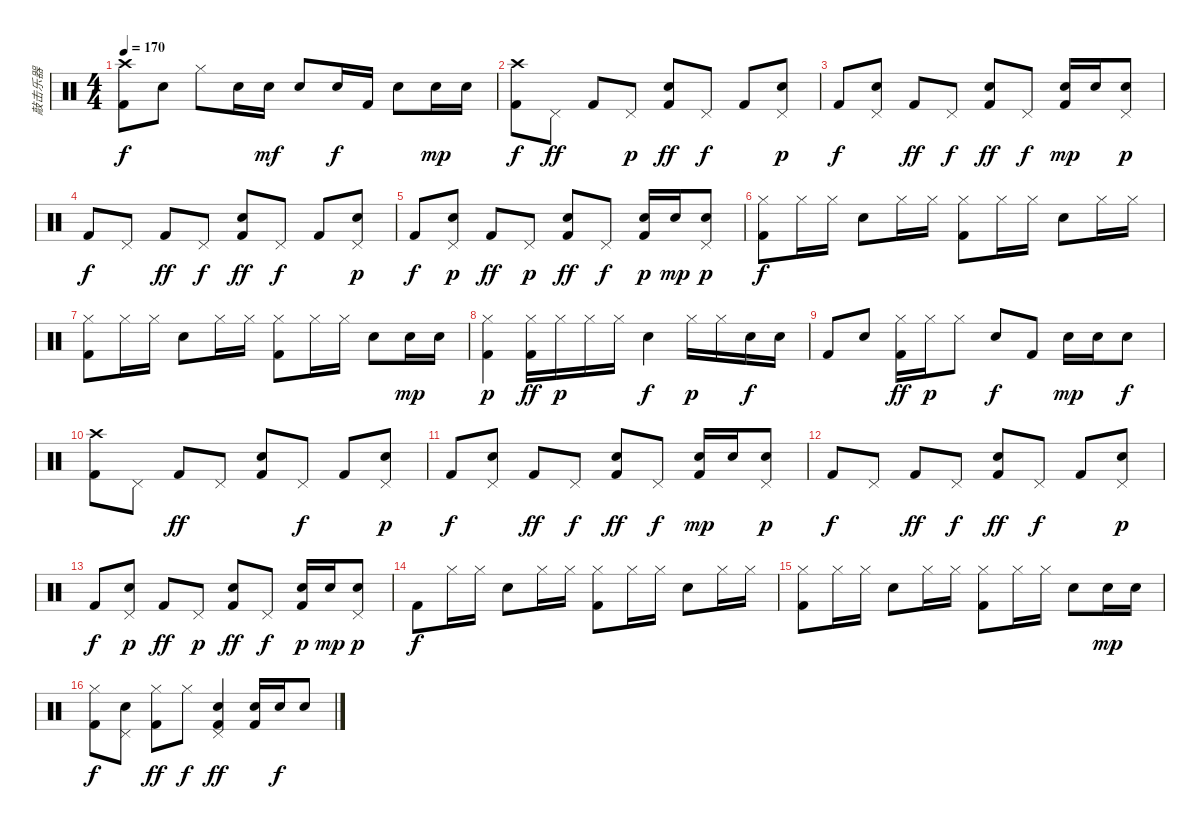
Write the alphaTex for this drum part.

\track ("敲击乐器" "敲击乐器") {instrument percussion}
\staff {score}
\articulation defaults
\ts (4 4)
\tempo 170
\clef neutral
\ks c
("Crash high (hit)" "Kick (hit) 2").8{dy f} "Snare (hit) 2".8 "Hi-Hat (closed)".8 "Snare (hit) 2".16 "Snare (hit) 2".16{dy mf} "Snare (hit) 2".8 "Snare (hit) 2".16{dy f} "Kick (hit) 2".16 "Snare (hit) 2".8 "Snare (hit) 2".16{dy mp} "Snare (hit) 2".16 |
("Crash high (hit)" "Kick (hit) 2").8{dy f} "Pedal Hi-Hat (hit)".8{dy ff} "Kick (hit) 2".8 "Pedal Hi-Hat (hit)".8{dy p} ("Snare (hit) 2" "Kick (hit) 2").8{dy ff} "Pedal Hi-Hat (hit)".8{dy f} "Kick (hit) 2".8 ("Pedal Hi-Hat (hit)" "Snare (hit) 2").8{dy p} |
"Kick (hit) 2".8{dy f} ("Pedal Hi-Hat (hit)" "Snare (hit) 2").8 "Kick (hit) 2".8{dy ff} "Pedal Hi-Hat (hit)".8{dy f} ("Snare (hit) 2" "Kick (hit) 2").8{dy ff} "Pedal Hi-Hat (hit)".8{dy f} ("Snare (hit) 2" "Kick (hit) 2").16{dy mp} "Snare (hit) 2".16 ("Pedal Hi-Hat (hit)" "Snare (hit) 2").8{dy p} |
"Kick (hit) 2".8{dy f} "Pedal Hi-Hat (hit)".8 "Kick (hit) 2".8{dy ff} "Pedal Hi-Hat (hit)".8{dy f} ("Snare (hit) 2" "Kick (hit) 2").8{dy ff} "Pedal Hi-Hat (hit)".8{dy f} "Kick (hit) 2".8 ("Pedal Hi-Hat (hit)" "Snare (hit) 2").8{dy p} |
"Kick (hit) 2".8{dy f} ("Pedal Hi-Hat (hit)" "Snare (hit) 2").8{dy p} "Kick (hit) 2".8{dy ff} "Pedal Hi-Hat (hit)".8{dy p} ("Snare (hit) 2" "Kick (hit) 2").8{dy ff} "Pedal Hi-Hat (hit)".8{dy f} ("Snare (hit) 2" "Kick (hit) 2").16{dy p} "Snare (hit) 2".16{dy mp} ("Pedal Hi-Hat (hit)" "Snare (hit) 2").8{dy p} |
("Hi-Hat (closed)" "Kick (hit) 2").8{dy f} "Hi-Hat (closed)".16 "Hi-Hat (closed)".16 "Snare (hit) 2".8 "Hi-Hat (closed)".16 "Hi-Hat (closed)".16 ("Hi-Hat (closed)" "Kick (hit) 2").8 "Hi-Hat (closed)".16 "Hi-Hat (closed)".16 "Snare (hit) 2".8 "Hi-Hat (closed)".16 "Hi-Hat (closed)".16 |
("Hi-Hat (closed)" "Kick (hit) 2").8 "Hi-Hat (closed)".16 "Hi-Hat (closed)".16 "Snare (hit) 2".8 "Hi-Hat (closed)".16 "Hi-Hat (closed)".16 ("Hi-Hat (closed)" "Kick (hit) 2").8 "Hi-Hat (closed)".16 "Hi-Hat (closed)".16 "Snare (hit) 2".8 "Snare (hit) 2".16{dy mp} "Snare (hit) 2".16 |
("Hi-Hat (closed)" "Kick (hit) 2").4{dy p} ("Hi-Hat (closed)" "Kick (hit) 2").16{dy ff} "Hi-Hat (closed)".16{dy p} "Hi-Hat (closed)".16 "Hi-Hat (closed)".16 "Snare (hit) 2".4{dy f} "Hi-Hat (closed)".16{dy p} "Hi-Hat (closed)".16 "Snare (hit) 2".16{dy f} "Snare (hit) 2".16 |
"Kick (hit) 2".8 "Snare (hit) 2".8 ("Hi-Hat (closed)" "Kick (hit) 2").16{dy ff} "Hi-Hat (closed)".16{dy p} "Hi-Hat (closed)".8 "Snare (hit) 2".8{dy f} "Kick (hit) 2".8 "Snare (hit) 2".16{dy mp} "Snare (hit) 2".16 "Snare (hit) 2".8{dy f} |
("Crash high (hit)" "Kick (hit) 2").8 "Pedal Hi-Hat (hit)".8 "Kick (hit) 2".8{dy ff} "Pedal Hi-Hat (hit)".8 ("Snare (hit) 2" "Kick (hit) 2").8 "Pedal Hi-Hat (hit)".8{dy f} "Kick (hit) 2".8 ("Pedal Hi-Hat (hit)" "Snare (hit) 2").8{dy p} |
"Kick (hit) 2".8{dy f} ("Pedal Hi-Hat (hit)" "Snare (hit) 2").8 "Kick (hit) 2".8{dy ff} "Pedal Hi-Hat (hit)".8{dy f} ("Snare (hit) 2" "Kick (hit) 2").8{dy ff} "Pedal Hi-Hat (hit)".8{dy f} ("Snare (hit) 2" "Kick (hit) 2").16{dy mp} "Snare (hit) 2".16 ("Pedal Hi-Hat (hit)" "Snare (hit) 2").8{dy p} |
"Kick (hit) 2".8{dy f} "Pedal Hi-Hat (hit)".8 "Kick (hit) 2".8{dy ff} "Pedal Hi-Hat (hit)".8{dy f} ("Snare (hit) 2" "Kick (hit) 2").8{dy ff} "Pedal Hi-Hat (hit)".8{dy f} "Kick (hit) 2".8 ("Pedal Hi-Hat (hit)" "Snare (hit) 2").8{dy p} |
"Kick (hit) 2".8{dy f} ("Pedal Hi-Hat (hit)" "Snare (hit) 2").8{dy p} "Kick (hit) 2".8{dy ff} "Pedal Hi-Hat (hit)".8{dy p} ("Snare (hit) 2" "Kick (hit) 2").8{dy ff} "Pedal Hi-Hat (hit)".8{dy f} ("Snare (hit) 2" "Kick (hit) 2").16{dy p} "Snare (hit) 2".16{dy mp} ("Pedal Hi-Hat (hit)" "Snare (hit) 2").8{dy p} |
"Kick (hit) 2".8{dy f} "Hi-Hat (closed)".16 "Hi-Hat (closed)".16 "Snare (hit) 2".8 "Hi-Hat (closed)".16 "Hi-Hat (closed)".16 ("Hi-Hat (closed)" "Kick (hit) 2").8 "Hi-Hat (closed)".16 "Hi-Hat (closed)".16 "Snare (hit) 2".8 "Hi-Hat (closed)".16 "Hi-Hat (closed)".16 |
("Hi-Hat (closed)" "Kick (hit) 2").8 "Hi-Hat (closed)".16 "Hi-Hat (closed)".16 "Snare (hit) 2".8 "Hi-Hat (closed)".16 "Hi-Hat (closed)".16 ("Hi-Hat (closed)" "Kick (hit) 2").8 "Hi-Hat (closed)".16 "Hi-Hat (closed)".16 "Snare (hit) 2".8 "Snare (hit) 2".16{dy mp} "Snare (hit) 2".16 |
("Hi-Hat (closed)" "Kick (hit) 2").8{dy f} ("Pedal Hi-Hat (hit)" "Snare (hit) 2").8 ("Hi-Hat (closed)" "Kick (hit) 2").8{dy ff} "Hi-Hat (closed)".8{dy f} ("Pedal Hi-Hat (hit)" "Snare (hit) 2" "Kick (hit) 2").4{dy ff} ("Snare (hit) 2" "Kick (hit) 2").16 "Snare (hit) 2".16{dy f} "Snare (hit) 2".8
